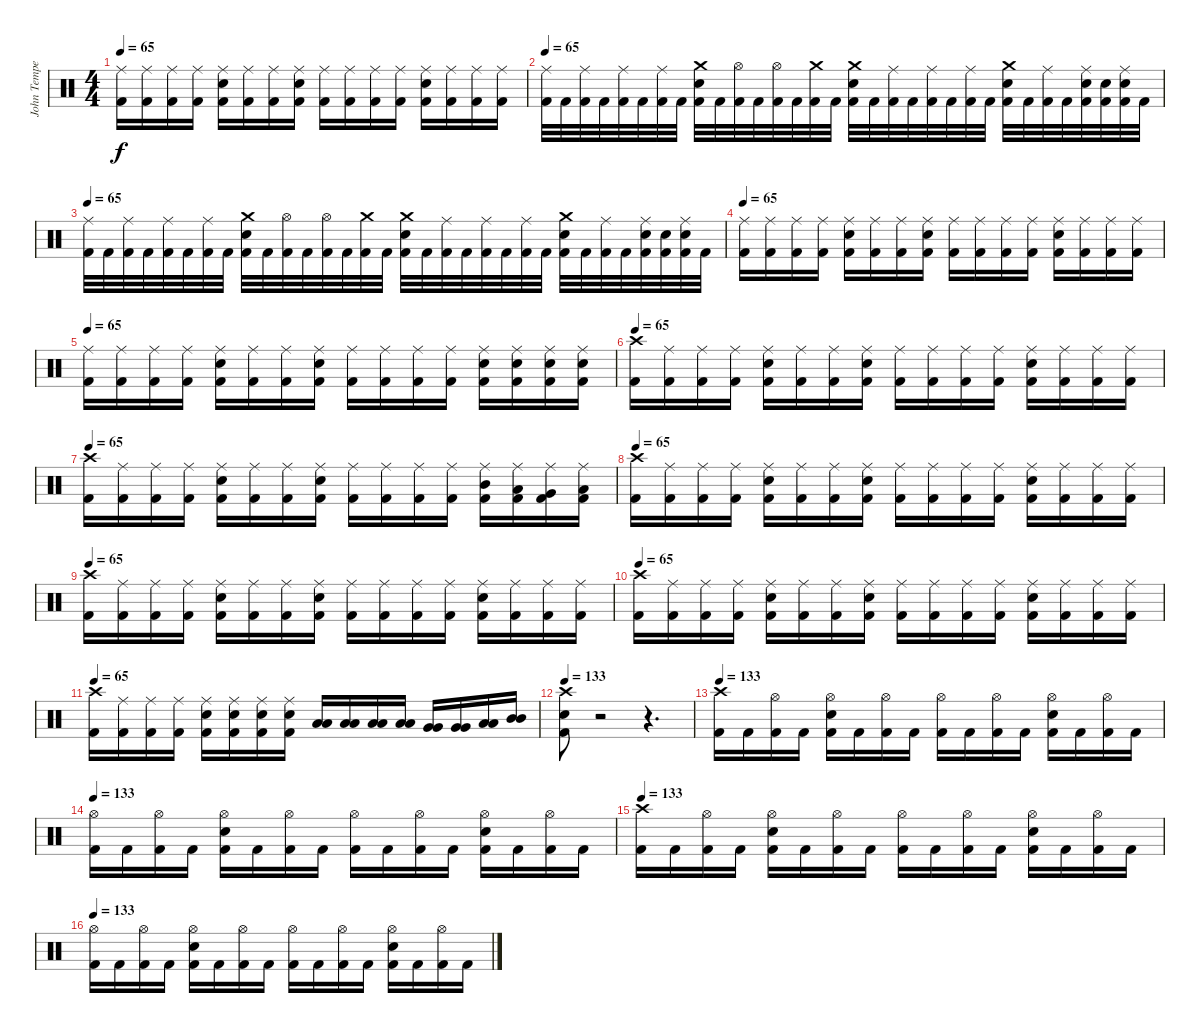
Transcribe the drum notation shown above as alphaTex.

\track ("John Tempesta" "John Tempe") {instrument percussion}
\staff {score}
\articulation defaults
\ts (4 4)
\tempo 65
\clef neutral
\ks c
("Ride (middle)" "Kick (hit) 2").16{dy f} ("Ride (middle)" "Kick (hit) 2").16 ("Ride (middle)" "Kick (hit) 2").16 ("Ride (middle)" "Kick (hit) 2").16 ("Ride (middle)" "Electric Snare (hit)" "Kick (hit) 2").16 ("Ride (middle)" "Kick (hit) 2").16 ("Ride (middle)" "Kick (hit) 2").16 ("Ride (middle)" "Electric Snare (hit)" "Kick (hit) 2").16 ("Ride (middle)" "Kick (hit) 2").16 ("Ride (middle)" "Kick (hit) 2").16 ("Ride (middle)" "Kick (hit) 2").16 ("Ride (middle)" "Kick (hit) 2").16 ("Ride (middle)" "Electric Snare (hit)" "Kick (hit) 2").16 ("Ride (middle)" "Kick (hit) 2").16 ("Ride (middle)" "Kick (hit) 2").16 ("Ride (middle)" "Kick (hit) 2").16 |
\tempo 65
("Ride (middle)" "Kick (hit) 2").32 "Kick (hit) 2".32 ("Ride (middle)" "Kick (hit) 2").32 "Kick (hit) 2".32 ("Ride (middle)" "Kick (hit) 2").32 "Kick (hit) 2".32 ("Ride (middle)" "Kick (hit) 2").32 "Kick (hit) 2".32 ("Crash medium (hit)" "Electric Snare (hit)" "Kick (hit) 2").32 "Kick (hit) 2".32 ("Hi-Hat (open)" "Kick (hit) 2").32 "Kick (hit) 2".32 ("Hi-Hat (open)" "Kick (hit) 2").32 "Kick (hit) 2".32 ("Crash medium (hit)" "Kick (hit) 2").32 "Kick (hit) 2".32 ("Crash medium (hit)" "Electric Snare (hit)" "Kick (hit) 2").32 "Kick (hit) 2".32 ("Ride (middle)" "Kick (hit) 2").32 "Kick (hit) 2".32 ("Ride (middle)" "Kick (hit) 2").32 "Kick (hit) 2".32 ("Ride (middle)" "Kick (hit) 2").32 "Kick (hit) 2".32 ("Crash medium (hit)" "Electric Snare (hit)" "Kick (hit) 2").32 "Kick (hit) 2".32 ("Ride (middle)" "Kick (hit) 2").32 "Kick (hit) 2".32 ("Ride (middle)" "Electric Snare (hit)" "Kick (hit) 2").32 ("Electric Snare (hit)" "Kick (hit) 2").32 ("Ride (middle)" "Electric Snare (hit)" "Kick (hit) 2").32 "Kick (hit) 2".32 |
\tempo 65
("Ride (middle)" "Kick (hit) 2").32 "Kick (hit) 2".32 ("Ride (middle)" "Kick (hit) 2").32 "Kick (hit) 2".32 ("Ride (middle)" "Kick (hit) 2").32 "Kick (hit) 2".32 ("Ride (middle)" "Kick (hit) 2").32 "Kick (hit) 2".32 ("Crash medium (hit)" "Electric Snare (hit)" "Kick (hit) 2").32 "Kick (hit) 2".32 ("Hi-Hat (open)" "Kick (hit) 2").32 "Kick (hit) 2".32 ("Hi-Hat (open)" "Kick (hit) 2").32 "Kick (hit) 2".32 ("Crash medium (hit)" "Kick (hit) 2").32 "Kick (hit) 2".32 ("Crash medium (hit)" "Electric Snare (hit)" "Kick (hit) 2").32 "Kick (hit) 2".32 ("Ride (middle)" "Kick (hit) 2").32 "Kick (hit) 2".32 ("Ride (middle)" "Kick (hit) 2").32 "Kick (hit) 2".32 ("Ride (middle)" "Kick (hit) 2").32 "Kick (hit) 2".32 ("Crash medium (hit)" "Electric Snare (hit)" "Kick (hit) 2").32 "Kick (hit) 2".32 ("Ride (middle)" "Kick (hit) 2").32 "Kick (hit) 2".32 ("Ride (middle)" "Electric Snare (hit)" "Kick (hit) 2").32 ("Electric Snare (hit)" "Kick (hit) 2").32 ("Ride (middle)" "Electric Snare (hit)" "Kick (hit) 2").32 "Kick (hit) 2".32 |
\tempo 65
("Ride (middle)" "Kick (hit) 2").16 ("Ride (middle)" "Kick (hit) 2").16 ("Ride (middle)" "Kick (hit) 2").16 ("Ride (middle)" "Kick (hit) 2").16 ("Ride (middle)" "Electric Snare (hit)" "Kick (hit) 2").16 ("Ride (middle)" "Kick (hit) 2").16 ("Ride (middle)" "Kick (hit) 2").16 ("Ride (middle)" "Electric Snare (hit)" "Kick (hit) 2").16 ("Ride (middle)" "Kick (hit) 2").16 ("Ride (middle)" "Kick (hit) 2").16 ("Ride (middle)" "Kick (hit) 2").16 ("Ride (middle)" "Kick (hit) 2").16 ("Ride (middle)" "Electric Snare (hit)" "Kick (hit) 2").16 ("Ride (middle)" "Kick (hit) 2").16 ("Ride (middle)" "Kick (hit) 2").16 ("Ride (middle)" "Kick (hit) 2").16 |
\tempo 65
("Ride (middle)" "Kick (hit) 2").16 ("Ride (middle)" "Kick (hit) 2").16 ("Ride (middle)" "Kick (hit) 2").16 ("Ride (middle)" "Kick (hit) 2").16 ("Ride (middle)" "Electric Snare (hit)" "Kick (hit) 2").16 ("Ride (middle)" "Kick (hit) 2").16 ("Ride (middle)" "Kick (hit) 2").16 ("Ride (middle)" "Electric Snare (hit)" "Kick (hit) 2").16 ("Ride (middle)" "Kick (hit) 2").16 ("Ride (middle)" "Kick (hit) 2").16 ("Ride (middle)" "Kick (hit) 2").16 ("Ride (middle)" "Kick (hit) 2").16 ("Ride (middle)" "Electric Snare (hit)" "Kick (hit) 2").16 ("Ride (middle)" "Electric Snare (hit)" "Kick (hit) 2").16 ("Ride (middle)" "Electric Snare (hit)" "Kick (hit) 2").16 ("Ride (middle)" "Electric Snare (hit)" "Kick (hit) 2").16 |
\tempo 65
("Crash high (hit)" "Kick (hit) 2").16 ("Ride (middle)" "Kick (hit) 2").16 ("Ride (middle)" "Kick (hit) 2").16 ("Ride (middle)" "Kick (hit) 2").16 ("Ride (middle)" "Electric Snare (hit)" "Kick (hit) 2").16 ("Ride (middle)" "Kick (hit) 2").16 ("Ride (middle)" "Kick (hit) 2").16 ("Ride (middle)" "Electric Snare (hit)" "Kick (hit) 2").16 ("Ride (middle)" "Kick (hit) 2").16 ("Ride (middle)" "Kick (hit) 2").16 ("Ride (middle)" "Kick (hit) 2").16 ("Ride (middle)" "Kick (hit) 2").16 ("Ride (middle)" "Electric Snare (hit)" "Kick (hit) 2").16 ("Ride (middle)" "Kick (hit) 2").16 ("Ride (middle)" "Kick (hit) 2").16 ("Ride (middle)" "Kick (hit) 2").16 |
\tempo 65
("Crash high (hit)" "Kick (hit) 2").16 ("Ride (middle)" "Kick (hit) 2").16 ("Ride (middle)" "Kick (hit) 2").16 ("Ride (middle)" "Kick (hit) 2").16 ("Ride (middle)" "Electric Snare (hit)" "Kick (hit) 2").16 ("Ride (middle)" "Kick (hit) 2").16 ("Ride (middle)" "Kick (hit) 2").16 ("Ride (middle)" "Electric Snare (hit)" "Kick (hit) 2").16 ("Ride (middle)" "Kick (hit) 2").16 ("Ride (middle)" "Kick (hit) 2").16 ("Ride (middle)" "Kick (hit) 2").16 ("Ride (middle)" "Kick (hit) 2").16 ("Ride (middle)" "Mid Tom (hit)" "Kick (hit) 2").16 ("Ride (middle)" "Low Tom (hit)" "Kick (hit) 2").16 ("Ride (middle)" "Very Low Tom (hit)" "Kick (hit) 2").16 ("Ride (middle)" "Low Floor Tom (hit)" "Kick (hit) 2").16 |
\tempo 65
("Crash high (hit)" "Kick (hit) 2").16 ("Ride (middle)" "Kick (hit) 2").16 ("Ride (middle)" "Kick (hit) 2").16 ("Ride (middle)" "Kick (hit) 2").16 ("Ride (middle)" "Electric Snare (hit)" "Kick (hit) 2").16 ("Ride (middle)" "Kick (hit) 2").16 ("Ride (middle)" "Kick (hit) 2").16 ("Ride (middle)" "Electric Snare (hit)" "Kick (hit) 2").16 ("Ride (middle)" "Kick (hit) 2").16 ("Ride (middle)" "Kick (hit) 2").16 ("Ride (middle)" "Kick (hit) 2").16 ("Ride (middle)" "Kick (hit) 2").16 ("Ride (middle)" "Electric Snare (hit)" "Kick (hit) 2").16 ("Ride (middle)" "Kick (hit) 2").16 ("Ride (middle)" "Kick (hit) 2").16 ("Ride (middle)" "Kick (hit) 2").16 |
\tempo 65
("Crash high (hit)" "Kick (hit) 2").16 ("Ride (middle)" "Kick (hit) 2").16 ("Ride (middle)" "Kick (hit) 2").16 ("Ride (middle)" "Kick (hit) 2").16 ("Ride (middle)" "Electric Snare (hit)" "Kick (hit) 2").16 ("Ride (middle)" "Kick (hit) 2").16 ("Ride (middle)" "Kick (hit) 2").16 ("Ride (middle)" "Electric Snare (hit)" "Kick (hit) 2").16 ("Ride (middle)" "Kick (hit) 2").16 ("Ride (middle)" "Kick (hit) 2").16 ("Ride (middle)" "Kick (hit) 2").16 ("Ride (middle)" "Kick (hit) 2").16 ("Ride (middle)" "Electric Snare (hit)" "Kick (hit) 2").16 ("Ride (middle)" "Kick (hit) 2").16 ("Ride (middle)" "Kick (hit) 2").16 ("Ride (middle)" "Kick (hit) 2").16 |
\tempo 65
("Crash high (hit)" "Kick (hit) 2").16 ("Ride (middle)" "Kick (hit) 2").16 ("Ride (middle)" "Kick (hit) 2").16 ("Ride (middle)" "Kick (hit) 2").16 ("Ride (middle)" "Electric Snare (hit)" "Kick (hit) 2").16 ("Ride (middle)" "Kick (hit) 2").16 ("Ride (middle)" "Kick (hit) 2").16 ("Ride (middle)" "Electric Snare (hit)" "Kick (hit) 2").16 ("Ride (middle)" "Kick (hit) 2").16 ("Ride (middle)" "Kick (hit) 2").16 ("Ride (middle)" "Kick (hit) 2").16 ("Ride (middle)" "Kick (hit) 2").16 ("Ride (middle)" "Electric Snare (hit)" "Kick (hit) 2").16 ("Ride (middle)" "Kick (hit) 2").16 ("Ride (middle)" "Kick (hit) 2").16 ("Ride (middle)" "Kick (hit) 2").16 |
\tempo 65
("Crash high (hit)" "Kick (hit) 2").16 ("Ride (middle)" "Kick (hit) 2").16 ("Ride (middle)" "Kick (hit) 2").16 ("Ride (middle)" "Kick (hit) 2").16 ("Ride (middle)" "Electric Snare (hit)" "Kick (hit) 2").16 ("Ride (middle)" "Electric Snare (hit)" "Kick (hit) 2").16 ("Ride (middle)" "Electric Snare (hit)" "Kick (hit) 2").16 ("Ride (middle)" "Electric Snare (hit)" "Kick (hit) 2").16 ("Low Tom (hit)" "Low Tom (hit)").16 ("Low Tom (hit)" "Low Tom (hit)").16 ("Low Floor Tom (hit)" "Low Floor Tom (hit)").16 ("Low Floor Tom (hit)" "Low Floor Tom (hit)").16 ("Very Low Tom (hit)" "Very Low Tom (hit)").16 ("Very Low Tom (hit)" "Very Low Tom (hit)").16 ("Low Floor Tom (hit)" "Low Floor Tom (hit)").16 ("Mid Tom (hit)" "Mid Tom (hit)").16 |
\tempo 133
("Crash high (hit)" "Electric Snare (hit)" "Kick (hit) 2").8 r.2 r.4{d} |
\tempo 133
("Crash high (hit)" "Kick (hit) 2").16 "Kick (hit) 2".16 ("Hi-Hat (open)" "Kick (hit) 2").16 "Kick (hit) 2".16 ("Hi-Hat (open)" "Electric Snare (hit)" "Kick (hit) 2").16 "Kick (hit) 2".16 ("Hi-Hat (open)" "Kick (hit) 2").16 "Kick (hit) 2".16 ("Hi-Hat (open)" "Kick (hit) 2").16 "Kick (hit) 2".16 ("Hi-Hat (open)" "Kick (hit) 2").16 "Kick (hit) 2".16 ("Hi-Hat (open)" "Electric Snare (hit)" "Kick (hit) 2").16 "Kick (hit) 2".16 ("Hi-Hat (open)" "Kick (hit) 2").16 "Kick (hit) 2".16 |
\tempo 133
("Hi-Hat (open)" "Kick (hit) 2").16 "Kick (hit) 2".16 ("Hi-Hat (open)" "Kick (hit) 2").16 "Kick (hit) 2".16 ("Hi-Hat (open)" "Electric Snare (hit)" "Kick (hit) 2").16 "Kick (hit) 2".16 ("Hi-Hat (open)" "Kick (hit) 2").16 "Kick (hit) 2".16 ("Hi-Hat (open)" "Kick (hit) 2").16 "Kick (hit) 2".16 ("Hi-Hat (open)" "Kick (hit) 2").16 "Kick (hit) 2".16 ("Hi-Hat (open)" "Electric Snare (hit)" "Kick (hit) 2").16 "Kick (hit) 2".16 ("Hi-Hat (open)" "Kick (hit) 2").16 "Kick (hit) 2".16 |
\tempo 133
("Crash high (hit)" "Kick (hit) 2").16 "Kick (hit) 2".16 ("Hi-Hat (open)" "Kick (hit) 2").16 "Kick (hit) 2".16 ("Hi-Hat (open)" "Electric Snare (hit)" "Kick (hit) 2").16 "Kick (hit) 2".16 ("Hi-Hat (open)" "Kick (hit) 2").16 "Kick (hit) 2".16 ("Hi-Hat (open)" "Kick (hit) 2").16 "Kick (hit) 2".16 ("Hi-Hat (open)" "Kick (hit) 2").16 "Kick (hit) 2".16 ("Hi-Hat (open)" "Electric Snare (hit)" "Kick (hit) 2").16 "Kick (hit) 2".16 ("Hi-Hat (open)" "Kick (hit) 2").16 "Kick (hit) 2".16 |
\tempo 133
("Hi-Hat (open)" "Kick (hit) 2").16 "Kick (hit) 2".16 ("Hi-Hat (open)" "Kick (hit) 2").16 "Kick (hit) 2".16 ("Hi-Hat (open)" "Electric Snare (hit)" "Kick (hit) 2").16 "Kick (hit) 2".16 ("Hi-Hat (open)" "Kick (hit) 2").16 "Kick (hit) 2".16 ("Hi-Hat (open)" "Kick (hit) 2").16 "Kick (hit) 2".16 ("Hi-Hat (open)" "Kick (hit) 2").16 "Kick (hit) 2".16 ("Hi-Hat (open)" "Electric Snare (hit)" "Kick (hit) 2").16 "Kick (hit) 2".16 ("Hi-Hat (open)" "Kick (hit) 2").16 "Kick (hit) 2".16
